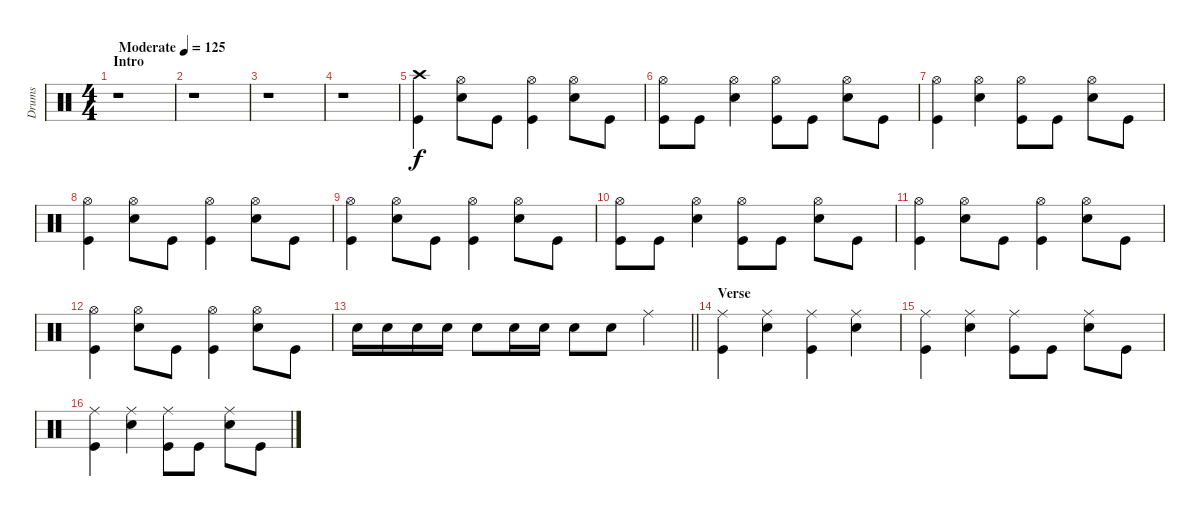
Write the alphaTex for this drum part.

\track ("Drums" "Drums") {instrument percussion}
\staff {score}
\articulation defaults
\ts (4 4)
\section ("" "Intro ")
\tempo (125 "Moderate")
\clef neutral
\ks c
r.1{dy f} |
r.1 |
r.1 |
r.1 |
("Crash high (hit)" "Kick (hit)").4 ("Hi-Hat (open)" "Electric Snare (hit)").8 "Kick (hit)".8 ("Hi-Hat (open)" "Kick (hit)").4 ("Hi-Hat (open)" "Electric Snare (hit)").8 "Kick (hit)".8 |
("Hi-Hat (open)" "Kick (hit)").8 "Kick (hit)".8 ("Hi-Hat (open)" "Electric Snare (hit)").4 ("Hi-Hat (open)" "Kick (hit)").8 "Kick (hit)".8 ("Hi-Hat (open)" "Electric Snare (hit)").8 "Kick (hit)".8 |
("Hi-Hat (open)" "Kick (hit)").4 ("Hi-Hat (open)" "Electric Snare (hit)").4 ("Hi-Hat (open)" "Kick (hit)").8 "Kick (hit)".8 ("Hi-Hat (open)" "Electric Snare (hit)").8 "Kick (hit)".8 |
("Hi-Hat (open)" "Kick (hit)").4 ("Hi-Hat (open)" "Electric Snare (hit)").8 "Kick (hit)".8 ("Hi-Hat (open)" "Kick (hit)").4 ("Hi-Hat (open)" "Electric Snare (hit)").8 "Kick (hit)".8 |
("Hi-Hat (open)" "Kick (hit)").4 ("Hi-Hat (open)" "Electric Snare (hit)").8 "Kick (hit)".8 ("Hi-Hat (open)" "Kick (hit)").4 ("Hi-Hat (open)" "Electric Snare (hit)").8 "Kick (hit)".8 |
("Hi-Hat (open)" "Kick (hit)").8 "Kick (hit)".8 ("Hi-Hat (open)" "Electric Snare (hit)").4 ("Hi-Hat (open)" "Kick (hit)").8 "Kick (hit)".8 ("Hi-Hat (open)" "Electric Snare (hit)").8 "Kick (hit)".8 |
("Hi-Hat (open)" "Kick (hit)").4 ("Hi-Hat (open)" "Electric Snare (hit)").8 "Kick (hit)".8 ("Hi-Hat (open)" "Kick (hit)").4 ("Hi-Hat (open)" "Electric Snare (hit)").8 "Kick (hit)".8 |
("Hi-Hat (open)" "Kick (hit)").4 ("Hi-Hat (open)" "Electric Snare (hit)").8 "Kick (hit)".8 ("Hi-Hat (open)" "Kick (hit)").4 ("Hi-Hat (open)" "Electric Snare (hit)").8 "Kick (hit)".8 |
\barLineRight lightlight "Electric Snare (hit)".16 "Electric Snare (hit)".16 "Electric Snare (hit)".16 "Electric Snare (hit)".16 "Electric Snare (hit)".8 "Electric Snare (hit)".16 "Electric Snare (hit)".16 "Electric Snare (hit)".8 "Electric Snare (hit)".8 "Ride (middle)".4
|
\section ("" "Verse ")
("Ride (middle)" "Kick (hit)").4 ("Ride (middle)" "Electric Snare (hit)").4 ("Ride (middle)" "Kick (hit)").4 ("Ride (middle)" "Electric Snare (hit)").4 |
("Ride (middle)" "Kick (hit)").4 ("Ride (middle)" "Electric Snare (hit)").4 ("Ride (middle)" "Kick (hit)").8 "Kick (hit)".8 ("Ride (middle)" "Electric Snare (hit)").8 "Kick (hit)".8 |
("Ride (middle)" "Kick (hit)").4 ("Ride (middle)" "Electric Snare (hit)").4 ("Ride (middle)" "Kick (hit)").8 "Kick (hit)".8 ("Ride (middle)" "Electric Snare (hit)").8 "Kick (hit)".8
